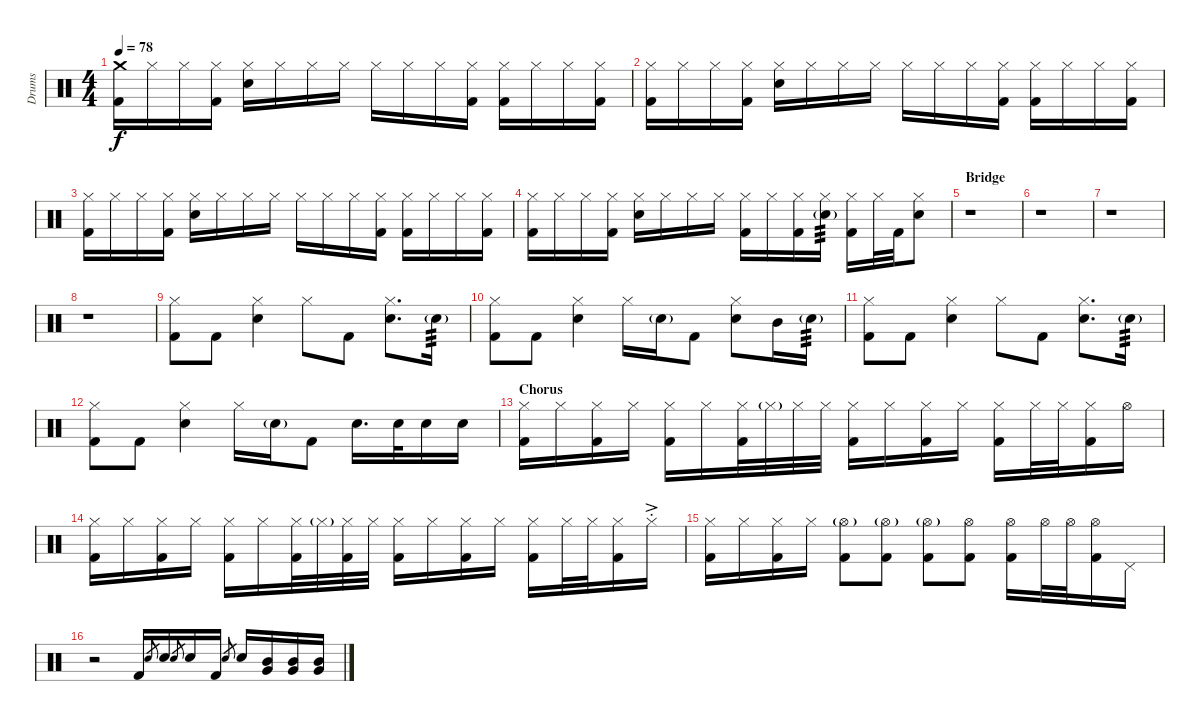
\track ("Drums" "Drums") {instrument percussion}
\staff {score}
\articulation defaults
\ts (4 4)
\tempo 78
\clef neutral
\ks c
("Crash medium (hit)" "Kick (hit) 2").16{dy f} "Hi-Hat (closed)".16 "Hi-Hat (closed)".16 ("Hi-Hat (closed)" "Kick (hit) 2").16 ("Hi-Hat (closed)" "Snare (hit) 2").16 "Hi-Hat (closed)".16 "Hi-Hat (closed)".16 "Hi-Hat (closed)".16 "Hi-Hat (closed)".16 "Hi-Hat (closed)".16 "Hi-Hat (closed)".16 ("Hi-Hat (closed)" "Kick (hit) 2").16 ("Hi-Hat (closed)" "Kick (hit) 2").16 "Hi-Hat (closed)".16 "Hi-Hat (closed)".16 ("Hi-Hat (closed)" "Kick (hit) 2").16 |
("Hi-Hat (closed)" "Kick (hit) 2").16 "Hi-Hat (closed)".16 "Hi-Hat (closed)".16 ("Hi-Hat (closed)" "Kick (hit) 2").16 ("Hi-Hat (closed)" "Snare (hit) 2").16 "Hi-Hat (closed)".16 "Hi-Hat (closed)".16 "Hi-Hat (closed)".16 "Hi-Hat (closed)".16 "Hi-Hat (closed)".16 "Hi-Hat (closed)".16 ("Hi-Hat (closed)" "Kick (hit) 2").16 ("Hi-Hat (closed)" "Kick (hit) 2").16 "Hi-Hat (closed)".16 "Hi-Hat (closed)".16 ("Hi-Hat (closed)" "Kick (hit) 2").16 |
("Hi-Hat (closed)" "Kick (hit) 2").16 "Hi-Hat (closed)".16 "Hi-Hat (closed)".16 ("Hi-Hat (closed)" "Kick (hit) 2").16 ("Hi-Hat (closed)" "Snare (hit) 2").16 "Hi-Hat (closed)".16 "Hi-Hat (closed)".16 "Hi-Hat (closed)".16 "Hi-Hat (closed)".16 "Hi-Hat (closed)".16 "Hi-Hat (closed)".16 ("Hi-Hat (closed)" "Kick (hit) 2").16 ("Hi-Hat (closed)" "Kick (hit) 2").16 "Hi-Hat (closed)".16 "Hi-Hat (closed)".16 ("Hi-Hat (closed)" "Kick (hit) 2").16 |
("Hi-Hat (closed)" "Kick (hit) 2").16 "Hi-Hat (closed)".16 "Hi-Hat (closed)".16 ("Hi-Hat (closed)" "Kick (hit) 2").16 ("Hi-Hat (closed)" "Snare (hit) 2").16 "Hi-Hat (closed)".16 "Hi-Hat (closed)".16 "Hi-Hat (closed)".16 ("Hi-Hat (closed)" "Kick (hit) 2").16 "Hi-Hat (closed)".16 ("Hi-Hat (closed)" "Kick (hit) 2").16 ("Hi-Hat (closed)" "Snare (hit) 2"{g}).16{tp 3} ("Hi-Hat (closed)" "Kick (hit) 2").16 "Hi-Hat (closed)".32 "Kick (hit) 2".32 ("Hi-Hat (closed)" "Snare (hit) 2").8 |
\section ("" "Bridge")
r.1 |
r.1 |
r.1 |
r.1 |
("Hi-Hat (closed)" "Kick (hit) 2").8 "Kick (hit) 2".8 ("Hi-Hat (closed)" "Snare (hit) 2").4 "Hi-Hat (closed)".8 "Kick (hit) 2".8 ("Hi-Hat (closed)" "Snare (hit) 2").8{d} "Snare (hit) 2"{g}.16{tp 3} |
("Hi-Hat (closed)" "Kick (hit) 2").8 "Kick (hit) 2".8 ("Hi-Hat (closed)" "Snare (hit) 2").4 "Hi-Hat (closed)".16 "Snare (hit) 2"{g}.16 "Kick (hit) 2".8 ("Hi-Hat (closed)" "Snare (hit) 2").8 "Mid Tom (hit)".16 "Snare (hit) 2"{g}.16{tp 3} |
("Hi-Hat (closed)" "Kick (hit) 2").8 "Kick (hit) 2".8 ("Hi-Hat (closed)" "Snare (hit) 2").4 "Hi-Hat (closed)".8 "Kick (hit) 2".8 ("Hi-Hat (closed)" "Snare (hit) 2").8{d} "Snare (hit) 2"{g}.16{tp 3} |
("Hi-Hat (closed)" "Kick (hit) 2").8 "Kick (hit) 2".8 ("Hi-Hat (closed)" "Snare (hit) 2").4 "Hi-Hat (closed)".16 "Snare (hit) 2"{g}.16 "Kick (hit) 2".8 "Snare (hit) 2".16{d} "Snare (hit) 2".32 "Snare (hit) 2".16 "Snare (hit) 2".16 |
\section ("" "Chorus")
("Hi-Hat (closed)" "Kick (hit) 2").16 "Hi-Hat (closed)".16 ("Hi-Hat (closed)" "Kick (hit) 2").16 "Hi-Hat (closed)".16 ("Hi-Hat (closed)" "Kick (hit) 2").16 "Hi-Hat (closed)".16 ("Hi-Hat (closed)" "Kick (hit) 2").32 "Hi-Hat (closed)"{g}.32 "Hi-Hat (closed)".32 "Hi-Hat (closed)".32 ("Hi-Hat (closed)" "Kick (hit) 2").16 "Hi-Hat (closed)".16 ("Hi-Hat (closed)" "Kick (hit) 2").16 "Hi-Hat (closed)".16 ("Hi-Hat (closed)" "Kick (hit) 2").16 "Hi-Hat (closed)".32 "Hi-Hat (closed)".32 ("Hi-Hat (closed)" "Kick (hit) 2").16 "Hi-Hat (open)".16 |
("Hi-Hat (closed)" "Kick (hit) 2").16 "Hi-Hat (closed)".16 ("Hi-Hat (closed)" "Kick (hit) 2").16 "Hi-Hat (closed)".16 ("Hi-Hat (closed)" "Kick (hit) 2").16 "Hi-Hat (closed)".16 ("Hi-Hat (closed)" "Kick (hit) 2").32 "Hi-Hat (closed)"{g}.32 ("Hi-Hat (closed)" "Kick (hit) 2").32 "Hi-Hat (closed)".32 ("Hi-Hat (closed)" "Kick (hit) 2").16 "Hi-Hat (closed)".16 ("Hi-Hat (closed)" "Kick (hit) 2").16 "Hi-Hat (closed)".16 ("Hi-Hat (closed)" "Kick (hit) 2").16 "Hi-Hat (closed)".32 "Hi-Hat (closed)".32 ("Hi-Hat (closed)" "Kick (hit) 2").16 "Hi-Hat (closed)"{ac st}.16 |
("Hi-Hat (closed)" "Kick (hit) 2").16 "Hi-Hat (closed)".16 ("Hi-Hat (closed)" "Kick (hit) 2").16 "Hi-Hat (closed)".16 ("Hi-Hat (open)"{g} "Kick (hit) 2").8 ("Hi-Hat (open)"{g} "Kick (hit) 2").8 ("Hi-Hat (open)"{g} "Kick (hit) 2").8 ("Hi-Hat (open)" "Kick (hit) 2").8 ("Hi-Hat (open)" "Kick (hit) 2").16 "Hi-Hat (open)".32 "Hi-Hat (open)".32 ("Hi-Hat (open)" "Kick (hit) 2").16 "Pedal Hi-Hat (hit)".16 |
r.2 "Kick (hit) 2".16 "Snare (hit) 2".8{gr} "Snare (hit) 2".16 "Snare (hit) 2".8{gr} "Snare (hit) 2".16 "Kick (hit) 2".16 "Snare (hit) 2".8{gr} "Snare (hit) 2".16 ("Mid Tom (hit)" "Very Low Tom (hit)").16 ("Mid Tom (hit)" "Very Low Tom (hit)").16 ("Mid Tom (hit)" "Very Low Tom (hit)").16
